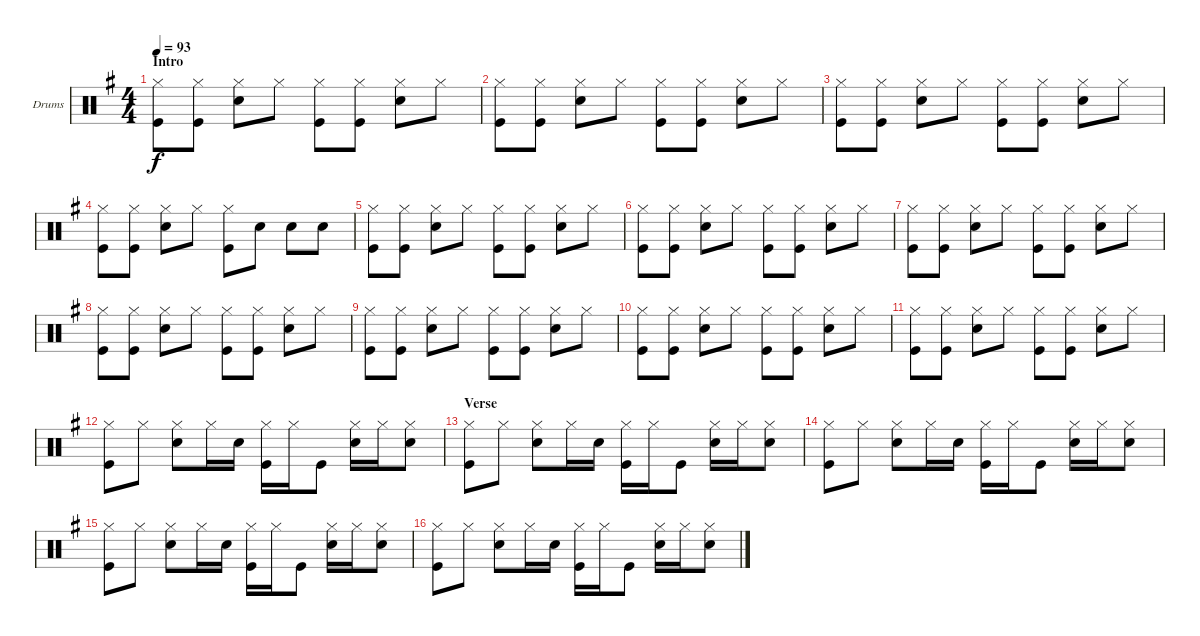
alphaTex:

\bracketExtendMode groupsimilarinstruments
\firstSystemTrackNameOrientation horizontal
\otherSystemsTrackNameOrientation horizontal
\track ("Drumkit" "Drums") {instrument percussion}
\staff {score}
\articulation defaults
\ts (4 4)
\section ("" "Intro")
\tempo 93
\clef neutral
\ks g
("Hi-Hat (closed)" "Kick (hit)").8{dy f} ("Hi-Hat (closed)" "Kick (hit)").8 ("Hi-Hat (closed)" "Snare (hit) 2").8 "Hi-Hat (closed)".8 ("Hi-Hat (closed)" "Kick (hit)").8 ("Hi-Hat (closed)" "Kick (hit)").8 ("Hi-Hat (closed)" "Snare (hit) 2").8 "Hi-Hat (closed)".8 |
("Hi-Hat (closed)" "Kick (hit)").8 ("Hi-Hat (closed)" "Kick (hit)").8 ("Hi-Hat (closed)" "Snare (hit) 2").8 "Hi-Hat (closed)".8 ("Hi-Hat (closed)" "Kick (hit)").8 ("Hi-Hat (closed)" "Kick (hit)").8 ("Hi-Hat (closed)" "Snare (hit) 2").8 "Hi-Hat (closed)".8 |
("Hi-Hat (closed)" "Kick (hit)").8 ("Hi-Hat (closed)" "Kick (hit)").8 ("Hi-Hat (closed)" "Snare (hit) 2").8 "Hi-Hat (closed)".8 ("Hi-Hat (closed)" "Kick (hit)").8 ("Hi-Hat (closed)" "Kick (hit)").8 ("Hi-Hat (closed)" "Snare (hit) 2").8 "Hi-Hat (closed)".8 |
("Hi-Hat (closed)" "Kick (hit)").8 ("Hi-Hat (closed)" "Kick (hit)").8 ("Hi-Hat (closed)" "Snare (hit) 2").8 "Hi-Hat (closed)".8 ("Hi-Hat (closed)" "Kick (hit)").8 "Snare (hit) 2".8 "Snare (hit) 2".8 "Snare (hit) 2".8 |
("Hi-Hat (closed)" "Kick (hit)").8 ("Hi-Hat (closed)" "Kick (hit)").8 ("Hi-Hat (closed)" "Snare (hit) 2").8 "Hi-Hat (closed)".8 ("Hi-Hat (closed)" "Kick (hit)").8 ("Hi-Hat (closed)" "Kick (hit)").8 ("Hi-Hat (closed)" "Snare (hit) 2").8 "Hi-Hat (closed)".8 |
("Hi-Hat (closed)" "Kick (hit)").8 ("Hi-Hat (closed)" "Kick (hit)").8 ("Hi-Hat (closed)" "Snare (hit) 2").8 "Hi-Hat (closed)".8 ("Hi-Hat (closed)" "Kick (hit)").8 ("Hi-Hat (closed)" "Kick (hit)").8 ("Hi-Hat (closed)" "Snare (hit) 2").8 "Hi-Hat (closed)".8 |
("Hi-Hat (closed)" "Kick (hit)").8 ("Hi-Hat (closed)" "Kick (hit)").8 ("Hi-Hat (closed)" "Snare (hit) 2").8 "Hi-Hat (closed)".8 ("Hi-Hat (closed)" "Kick (hit)").8 ("Hi-Hat (closed)" "Kick (hit)").8 ("Hi-Hat (closed)" "Snare (hit) 2").8 "Hi-Hat (closed)".8 |
("Hi-Hat (closed)" "Kick (hit)").8 ("Hi-Hat (closed)" "Kick (hit)").8 ("Hi-Hat (closed)" "Snare (hit) 2").8 "Hi-Hat (closed)".8 ("Hi-Hat (closed)" "Kick (hit)").8 ("Hi-Hat (closed)" "Kick (hit)").8 ("Hi-Hat (closed)" "Snare (hit) 2").8 "Hi-Hat (closed)".8 |
("Hi-Hat (closed)" "Kick (hit)").8 ("Hi-Hat (closed)" "Kick (hit)").8 ("Hi-Hat (closed)" "Snare (hit) 2").8 "Hi-Hat (closed)".8 ("Hi-Hat (closed)" "Kick (hit)").8 ("Hi-Hat (closed)" "Kick (hit)").8 ("Hi-Hat (closed)" "Snare (hit) 2").8 "Hi-Hat (closed)".8 |
("Hi-Hat (closed)" "Kick (hit)").8 ("Hi-Hat (closed)" "Kick (hit)").8 ("Hi-Hat (closed)" "Snare (hit) 2").8 "Hi-Hat (closed)".8 ("Hi-Hat (closed)" "Kick (hit)").8 ("Hi-Hat (closed)" "Kick (hit)").8 ("Hi-Hat (closed)" "Snare (hit) 2").8 "Hi-Hat (closed)".8 |
("Hi-Hat (closed)" "Kick (hit)").8 ("Hi-Hat (closed)" "Kick (hit)").8 ("Hi-Hat (closed)" "Snare (hit) 2").8 "Hi-Hat (closed)".8 ("Hi-Hat (closed)" "Kick (hit)").8 ("Hi-Hat (closed)" "Kick (hit)").8 ("Hi-Hat (closed)" "Snare (hit) 2").8 "Hi-Hat (closed)".8 |
("Hi-Hat (closed)" "Kick (hit)").8 "Hi-Hat (closed)".8 ("Hi-Hat (closed)" "Snare (hit) 2").8 "Hi-Hat (closed)".16 "Snare (hit) 2".16 ("Hi-Hat (closed)" "Kick (hit)").16 "Hi-Hat (closed)".16 "Kick (hit)".8 ("Hi-Hat (closed)" "Snare (hit) 2").16 "Hi-Hat (closed)".16 ("Hi-Hat (closed)" "Snare (hit) 2").8 |
\section ("" "Verse")
("Hi-Hat (closed)" "Kick (hit)").8 "Hi-Hat (closed)".8 ("Hi-Hat (closed)" "Snare (hit) 2").8 "Hi-Hat (closed)".16 "Snare (hit) 2".16 ("Hi-Hat (closed)" "Kick (hit)").16 "Hi-Hat (closed)".16 "Kick (hit)".8 ("Hi-Hat (closed)" "Snare (hit) 2").16 "Hi-Hat (closed)".16 ("Hi-Hat (closed)" "Snare (hit) 2").8 |
("Hi-Hat (closed)" "Kick (hit)").8 "Hi-Hat (closed)".8 ("Hi-Hat (closed)" "Snare (hit) 2").8 "Hi-Hat (closed)".16 "Snare (hit) 2".16 ("Hi-Hat (closed)" "Kick (hit)").16 "Hi-Hat (closed)".16 "Kick (hit)".8 ("Hi-Hat (closed)" "Snare (hit) 2").16 "Hi-Hat (closed)".16 ("Hi-Hat (closed)" "Snare (hit) 2").8 |
("Hi-Hat (closed)" "Kick (hit)").8 "Hi-Hat (closed)".8 ("Hi-Hat (closed)" "Snare (hit) 2").8 "Hi-Hat (closed)".16 "Snare (hit) 2".16 ("Hi-Hat (closed)" "Kick (hit)").16 "Hi-Hat (closed)".16 "Kick (hit)".8 ("Hi-Hat (closed)" "Snare (hit) 2").16 "Hi-Hat (closed)".16 ("Hi-Hat (closed)" "Snare (hit) 2").8 |
("Hi-Hat (closed)" "Kick (hit)").8 "Hi-Hat (closed)".8 ("Hi-Hat (closed)" "Snare (hit) 2").8 "Hi-Hat (closed)".16 "Snare (hit) 2".16 ("Hi-Hat (closed)" "Kick (hit)").16 "Hi-Hat (closed)".16 "Kick (hit)".8 ("Hi-Hat (closed)" "Snare (hit) 2").16 "Hi-Hat (closed)".16 ("Hi-Hat (closed)" "Snare (hit) 2").8
